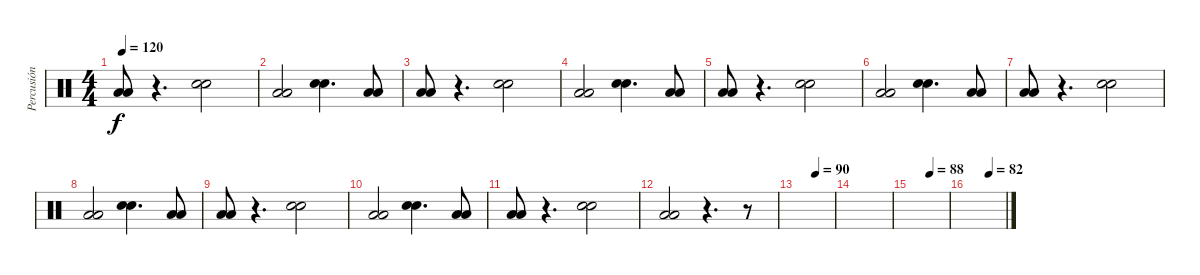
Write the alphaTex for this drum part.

\track ("Percusión" "Percusión") {instrument percussion}
\staff {score}
\articulation defaults
\ts (4 4)
\tempo 120
\clef neutral
\ks c
("Low Floor Tom (hit)" "Low Floor Tom (hit)").8{dy f} r.4{d} ("Electric Snare (hit)" "Electric Snare (hit)").2 |
("Low Floor Tom (hit)" "Low Floor Tom (hit)").2 ("Electric Snare (hit)" "Electric Snare (hit)").4{d} ("Low Floor Tom (hit)" "Low Floor Tom (hit)").8 |
("Low Floor Tom (hit)" "Low Floor Tom (hit)").8 r.4{d} ("Electric Snare (hit)" "Electric Snare (hit)").2 |
("Low Floor Tom (hit)" "Low Floor Tom (hit)").2 ("Electric Snare (hit)" "Electric Snare (hit)").4{d} ("Low Floor Tom (hit)" "Low Floor Tom (hit)").8 |
("Low Floor Tom (hit)" "Low Floor Tom (hit)").8 r.4{d} ("Electric Snare (hit)" "Electric Snare (hit)").2 |
("Low Floor Tom (hit)" "Low Floor Tom (hit)").2 ("Electric Snare (hit)" "Electric Snare (hit)").4{d} ("Low Floor Tom (hit)" "Low Floor Tom (hit)").8 |
("Low Floor Tom (hit)" "Low Floor Tom (hit)").8 r.4{d} ("Electric Snare (hit)" "Electric Snare (hit)").2 |
("Low Floor Tom (hit)" "Low Floor Tom (hit)").2 ("Electric Snare (hit)" "Electric Snare (hit)").4{d} ("Low Floor Tom (hit)" "Low Floor Tom (hit)").8 |
("Low Floor Tom (hit)" "Low Floor Tom (hit)").8 r.4{d} ("Electric Snare (hit)" "Electric Snare (hit)").2 |
("Low Floor Tom (hit)" "Low Floor Tom (hit)").2 ("Electric Snare (hit)" "Electric Snare (hit)").4{d} ("Low Floor Tom (hit)" "Low Floor Tom (hit)").8 |
("Low Floor Tom (hit)" "Low Floor Tom (hit)").8 r.4{d} ("Electric Snare (hit)" "Electric Snare (hit)").2 |
("Low Floor Tom (hit)" "Low Floor Tom (hit)").2 r.4{d} r.8 |
\tempo (90 0.5)
|
|
\tempo (88 0.5)
|
\tempo (82 0.5625)
